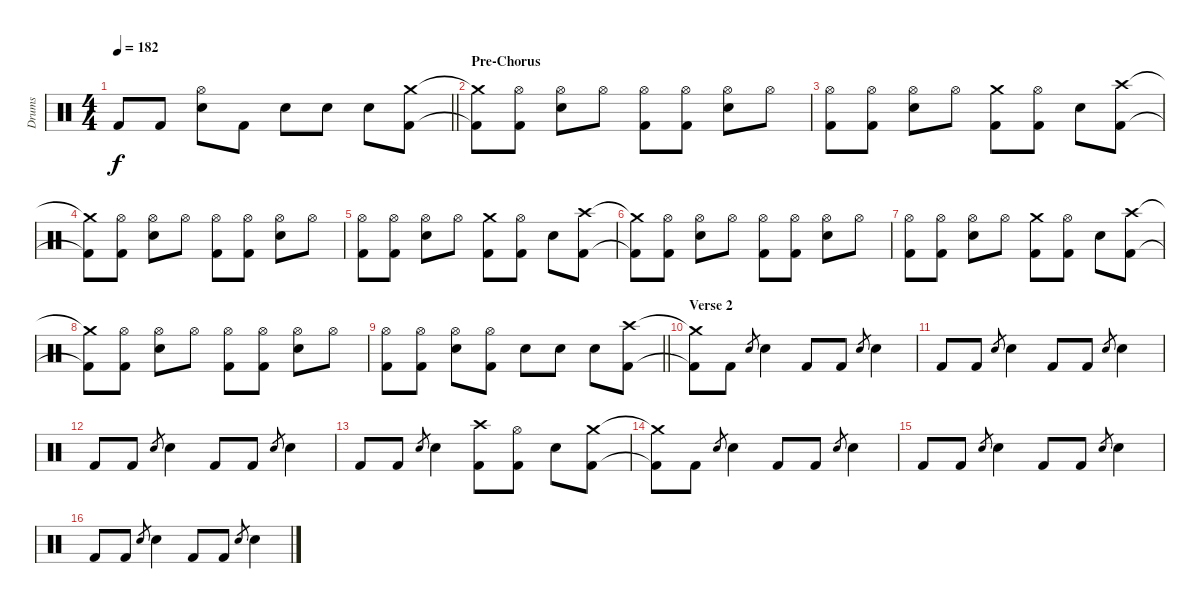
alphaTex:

\track ("Drums" "Drums") {instrument percussion}
\staff {score}
\articulation defaults
\ts (4 4)
\tempo 182
\clef neutral
\barLineRight lightlight
\ks c "Kick (hit) 2".8{dy f} "Kick (hit) 2".8
("Hi-Hat (open)" "Snare (hit) 2").8 "Kick (hit) 2".8 "Snare (hit) 2".8 "Snare (hit) 2".8 "Snare (hit) 2".8 ("Crash medium (hit)" "Kick (hit) 2").8 |
\section ("" "Pre-Chorus")
("Crash medium (hit)"{t} "Kick (hit) 2"{t}).8 ("Hi-Hat (open)" "Kick (hit) 2").8 ("Hi-Hat (open)" "Snare (hit) 2").8 "Hi-Hat (open)".8 ("Hi-Hat (open)" "Kick (hit) 2").8 ("Hi-Hat (open)" "Kick (hit) 2").8 ("Hi-Hat (open)" "Snare (hit) 2").8 "Hi-Hat (open)".8 |
("Hi-Hat (open)" "Kick (hit) 2").8 ("Hi-Hat (open)" "Kick (hit) 2").8 ("Hi-Hat (open)" "Snare (hit) 2").8 "Hi-Hat (open)".8 ("Crash medium (hit)" "Kick (hit) 2").8 ("Hi-Hat (open)" "Kick (hit) 2").8 "Snare (hit) 2".8 ("Crash high (hit)" "Kick (hit) 2").8 |
("Crash medium (hit)"{t} "Kick (hit) 2"{t}).8 ("Hi-Hat (open)" "Kick (hit) 2").8 ("Hi-Hat (open)" "Snare (hit) 2").8 "Hi-Hat (open)".8 ("Hi-Hat (open)" "Kick (hit) 2").8 ("Hi-Hat (open)" "Kick (hit) 2").8 ("Hi-Hat (open)" "Snare (hit) 2").8 "Hi-Hat (open)".8 |
("Hi-Hat (open)" "Kick (hit) 2").8 ("Hi-Hat (open)" "Kick (hit) 2").8 ("Hi-Hat (open)" "Snare (hit) 2").8 "Hi-Hat (open)".8 ("Crash medium (hit)" "Kick (hit) 2").8 ("Hi-Hat (open)" "Kick (hit) 2").8 "Snare (hit) 2".8 ("Crash high (hit)" "Kick (hit) 2").8 |
("Crash medium (hit)"{t} "Kick (hit) 2"{t}).8 ("Hi-Hat (open)" "Kick (hit) 2").8 ("Hi-Hat (open)" "Snare (hit) 2").8 "Hi-Hat (open)".8 ("Hi-Hat (open)" "Kick (hit) 2").8 ("Hi-Hat (open)" "Kick (hit) 2").8 ("Hi-Hat (open)" "Snare (hit) 2").8 "Hi-Hat (open)".8 |
("Hi-Hat (open)" "Kick (hit) 2").8 ("Hi-Hat (open)" "Kick (hit) 2").8 ("Hi-Hat (open)" "Snare (hit) 2").8 "Hi-Hat (open)".8 ("Crash medium (hit)" "Kick (hit) 2").8 ("Hi-Hat (open)" "Kick (hit) 2").8 "Snare (hit) 2".8 ("Crash high (hit)" "Kick (hit) 2").8 |
("Crash medium (hit)"{t} "Kick (hit) 2"{t}).8 ("Hi-Hat (open)" "Kick (hit) 2").8 ("Hi-Hat (open)" "Snare (hit) 2").8 "Hi-Hat (open)".8 ("Hi-Hat (open)" "Kick (hit) 2").8 ("Hi-Hat (open)" "Kick (hit) 2").8 ("Hi-Hat (open)" "Snare (hit) 2").8 "Hi-Hat (open)".8 |
\barLineRight lightlight
("Hi-Hat (open)" "Kick (hit) 2").8 ("Hi-Hat (open)" "Kick (hit) 2").8 ("Hi-Hat (open)" "Snare (hit) 2").8 ("Hi-Hat (open)" "Kick (hit) 2").8 "Snare (hit) 2".8 "Snare (hit) 2".8 "Snare (hit) 2".8 ("Crash high (hit)" "Kick (hit) 2").8 |
\section ("" "Verse 2")
("Crash medium (hit)"{t} "Kick (hit) 2"{t}).8 "Kick (hit) 2".8 "Snare (hit) 2".8{gr} "Snare (hit) 2".4 "Kick (hit) 2".8 "Kick (hit) 2".8 "Snare (hit) 2".8{gr} "Snare (hit) 2".4 |
"Kick (hit) 2".8 "Kick (hit) 2".8 "Snare (hit) 2".8{gr} "Snare (hit) 2".4 "Kick (hit) 2".8 "Kick (hit) 2".8 "Snare (hit) 2".8{gr} "Snare (hit) 2".4 |
"Kick (hit) 2".8 "Kick (hit) 2".8 "Snare (hit) 2".8{gr} "Snare (hit) 2".4 "Kick (hit) 2".8 "Kick (hit) 2".8 "Snare (hit) 2".8{gr} "Snare (hit) 2".4 |
"Kick (hit) 2".8 "Kick (hit) 2".8 "Snare (hit) 2".8{gr} "Snare (hit) 2".4 ("Crash high (hit)" "Kick (hit) 2").8 ("Hi-Hat (open)" "Kick (hit) 2").8 "Snare (hit) 2".8 ("Crash medium (hit)" "Kick (hit) 2").8 |
("Crash medium (hit)"{t} "Kick (hit) 2"{t}).8 "Kick (hit) 2".8 "Snare (hit) 2".8{gr} "Snare (hit) 2".4 "Kick (hit) 2".8 "Kick (hit) 2".8 "Snare (hit) 2".8{gr} "Snare (hit) 2".4 |
"Kick (hit) 2".8 "Kick (hit) 2".8 "Snare (hit) 2".8{gr} "Snare (hit) 2".4 "Kick (hit) 2".8 "Kick (hit) 2".8 "Snare (hit) 2".8{gr} "Snare (hit) 2".4 |
"Kick (hit) 2".8 "Kick (hit) 2".8 "Snare (hit) 2".8{gr} "Snare (hit) 2".4 "Kick (hit) 2".8 "Kick (hit) 2".8 "Snare (hit) 2".8{gr} "Snare (hit) 2".4
